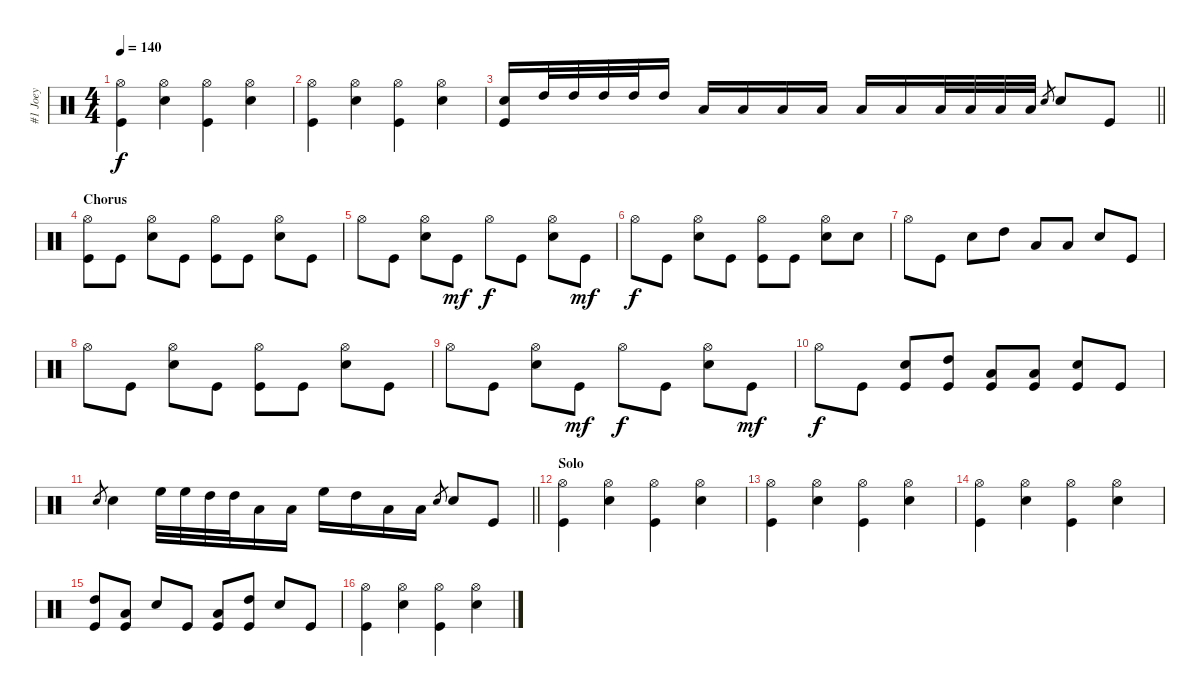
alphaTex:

\track ("#1 Joey" "#1 Joey") {solo instrument percussion}
\staff {score}
\articulation defaults
\ts (4 4)
\tempo 140
\clef neutral
\ks c
("Hi-Hat (open)" "Kick (hit)").4{dy f} ("Hi-Hat (open)" "Electric Snare (hit)").4 ("Hi-Hat (open)" "Kick (hit)").4 ("Hi-Hat (open)" "Electric Snare (hit)").4 |
("Hi-Hat (open)" "Kick (hit)").4 ("Hi-Hat (open)" "Electric Snare (hit)").4 ("Hi-Hat (open)" "Kick (hit)").4 ("Hi-Hat (open)" "Electric Snare (hit)").4 |
\barLineRight lightlight
("Electric Snare (hit)" "Kick (hit)").16 "High Tom (hit)".32 "High Tom (hit)".32 "High Tom (hit)".32 "High Tom (hit)".32 "High Tom (hit)".16 "Low Tom (hit)".16 "Low Tom (hit)".16 "Low Tom (hit)".16 "Low Tom (hit)".16 "Low Floor Tom (hit)".16 "Low Floor Tom (hit)".16 "Low Floor Tom (hit)".32 "Low Floor Tom (hit)".32 "Low Floor Tom (hit)".32 "Low Floor Tom (hit)".32 "Electric Snare (hit)".8{gr} "Electric Snare (hit)".8 "Kick (hit)".8 |
\section ("" "Chorus")
("Hi-Hat (open)" "Kick (hit)").8 "Kick (hit)".8 ("Hi-Hat (open)" "Electric Snare (hit)").8 "Kick (hit)".8 ("Hi-Hat (open)" "Kick (hit)").8 "Kick (hit)".8 ("Hi-Hat (open)" "Electric Snare (hit)").8 "Kick (hit)".8 |
"Hi-Hat (open)".8 "Kick (hit)".8 ("Hi-Hat (open)" "Electric Snare (hit)").8 "Kick (hit)".8{dy mf} "Hi-Hat (open)".8{dy f} "Kick (hit)".8 ("Hi-Hat (open)" "Electric Snare (hit)").8 "Kick (hit)".8{dy mf} |
"Hi-Hat (open)".8{dy f} "Kick (hit)".8 ("Hi-Hat (open)" "Electric Snare (hit)").8 "Kick (hit)".8 ("Hi-Hat (open)" "Kick (hit)").8 "Kick (hit)".8 ("Hi-Hat (open)" "Electric Snare (hit)").8 "Electric Snare (hit)".8 |
"Hi-Hat (open)".8 "Kick (hit)".8 "Electric Snare (hit)".8 "High Tom (hit)".8 "Low Tom (hit)".8 "Low Floor Tom (hit)".8 "Electric Snare (hit)".8 "Kick (hit)".8 |
"Hi-Hat (open)".8 "Kick (hit)".8 ("Hi-Hat (open)" "Electric Snare (hit)").8 "Kick (hit)".8 ("Hi-Hat (open)" "Kick (hit)").8 "Kick (hit)".8 ("Hi-Hat (open)" "Electric Snare (hit)").8 "Kick (hit)".8 |
"Hi-Hat (open)".8 "Kick (hit)".8 ("Hi-Hat (open)" "Electric Snare (hit)").8 "Kick (hit)".8{dy mf} "Hi-Hat (open)".8{dy f} "Kick (hit)".8 ("Hi-Hat (open)" "Electric Snare (hit)").8 "Kick (hit)".8{dy mf} |
"Hi-Hat (open)".8{dy f} "Kick (hit)".8 ("Electric Snare (hit)" "Kick (hit)").8 ("High Tom (hit)" "Kick (hit)").8 ("Low Tom (hit)" "Kick (hit)").8 ("Low Floor Tom (hit)" "Kick (hit)").8 ("Electric Snare (hit)" "Kick (hit)").8 "Kick (hit)".8 |
\barLineRight lightlight "Electric Snare (hit)".8{gr} "Electric Snare (hit)".4 "High Floor Tom (hit)".32 "High Floor Tom (hit)".32 "High Tom (hit)".32 "High Tom (hit)".32 "Low Tom (hit)".16 "Low Floor Tom (hit)".16 "High Floor Tom (hit)".16 "High Tom (hit)".16 "Low Tom (hit)".16 "Low Floor Tom (hit)".16 "Electric Snare (hit)".8{gr} "Electric Snare (hit)".8 "Kick (hit)".8
|
\section ("" "Solo")
("Hi-Hat (open)" "Kick (hit)").4 ("Hi-Hat (open)" "Electric Snare (hit)").4 ("Hi-Hat (open)" "Kick (hit)").4 ("Hi-Hat (open)" "Electric Snare (hit)").4 |
("Hi-Hat (open)" "Kick (hit)").4 ("Hi-Hat (open)" "Electric Snare (hit)").4 ("Hi-Hat (open)" "Kick (hit)").4 ("Hi-Hat (open)" "Electric Snare (hit)").4 |
("Hi-Hat (open)" "Kick (hit)").4 ("Hi-Hat (open)" "Electric Snare (hit)").4 ("Hi-Hat (open)" "Kick (hit)").4 ("Hi-Hat (open)" "Electric Snare (hit)").4 |
("High Tom (hit)" "Kick (hit)").8 ("Low Tom (hit)" "Kick (hit)").8 "Electric Snare (hit)".8 "Kick (hit)".8 ("Low Tom (hit)" "Kick (hit)").8 ("High Tom (hit)" "Kick (hit)").8 "Electric Snare (hit)".8 "Kick (hit)".8 |
("Hi-Hat (open)" "Kick (hit)").4 ("Hi-Hat (open)" "Electric Snare (hit)").4 ("Hi-Hat (open)" "Kick (hit)").4 ("Hi-Hat (open)" "Electric Snare (hit)").4
